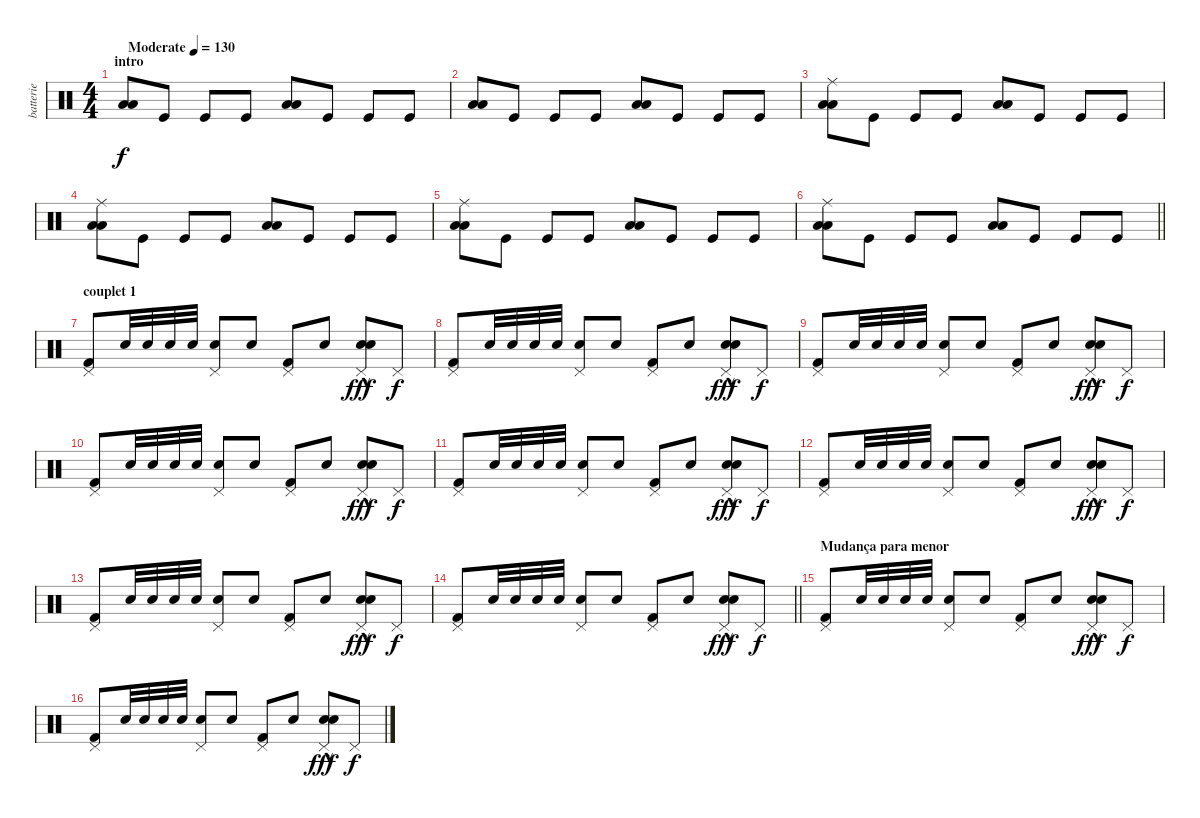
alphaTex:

\track ("batterie" "batterie") {instrument percussion}
\staff {score}
\articulation defaults
\ts (4 4)
\section ("" "intro")
\tempo (130 "Moderate")
\clef neutral
\ks c
("Low Floor Tom (hit)" "Low Floor Tom (hit)").8{bd 240 dy f} "Kick (hit)".8 "Kick (hit)".8 "Kick (hit)".8 ("Low Floor Tom (hit)" "Low Floor Tom (hit)").8 "Kick (hit)".8 "Kick (hit)".8 "Kick (hit)".8 |
("Low Floor Tom (hit)" "Low Floor Tom (hit)").8{bd 240} "Kick (hit)".8 "Kick (hit)".8 "Kick (hit)".8 ("Low Floor Tom (hit)" "Low Floor Tom (hit)").8 "Kick (hit)".8 "Kick (hit)".8 "Kick (hit)".8 |
("Ride (middle)" "Low Floor Tom (hit)" "Low Floor Tom (hit)").8{bd 240} "Kick (hit)".8 "Kick (hit)".8 "Kick (hit)".8 ("Low Floor Tom (hit)" "Low Floor Tom (hit)").8 "Kick (hit)".8 "Kick (hit)".8 "Kick (hit)".8 |
("Ride (middle)" "Low Floor Tom (hit)" "Low Floor Tom (hit)").8{bd 240} "Kick (hit)".8 "Kick (hit)".8 "Kick (hit)".8 ("Low Floor Tom (hit)" "Low Floor Tom (hit)").8 "Kick (hit)".8 "Kick (hit)".8 "Kick (hit)".8 |
("Ride (middle)" "Low Floor Tom (hit)" "Low Floor Tom (hit)").8{bd 240} "Kick (hit)".8 "Kick (hit)".8 "Kick (hit)".8 ("Low Floor Tom (hit)" "Low Floor Tom (hit)").8 "Kick (hit)".8 "Kick (hit)".8 "Kick (hit)".8 |
\barLineRight lightlight
("Ride (middle)" "Low Floor Tom (hit)" "Low Floor Tom (hit)").8{bd 240} "Kick (hit)".8 "Kick (hit)".8 "Kick (hit)".8 ("Low Floor Tom (hit)" "Low Floor Tom (hit)").8 "Kick (hit)".8 "Kick (hit)".8 "Kick (hit)".8 |
\section ("" "couplet 1")
("Pedal Hi-Hat (hit)" "Kick (hit) 2").8 "Snare (hit) 2".32 "Snare (hit) 2".32 "Snare (hit) 2".32 "Snare (hit) 2".32 ("Pedal Hi-Hat (hit)" "Snare (hit) 2").8 "Snare (hit) 2".8 ("Pedal Hi-Hat (hit)" "Kick (hit) 2").8 "Snare (hit) 2".8 ("Pedal Hi-Hat (hit)" "Snare (hit) 2"{hac} "Snare (hit) 2"{hac}).8{dy fff} "Pedal Hi-Hat (hit)".8{dy f} |
("Pedal Hi-Hat (hit)" "Kick (hit) 2").8 "Snare (hit) 2".32 "Snare (hit) 2".32 "Snare (hit) 2".32 "Snare (hit) 2".32 ("Pedal Hi-Hat (hit)" "Snare (hit) 2").8 "Snare (hit) 2".8 ("Pedal Hi-Hat (hit)" "Kick (hit) 2").8 "Snare (hit) 2".8 ("Pedal Hi-Hat (hit)" "Snare (hit) 2"{hac} "Snare (hit) 2"{hac}).8{dy fff} "Pedal Hi-Hat (hit)".8{dy f} |
("Pedal Hi-Hat (hit)" "Kick (hit) 2").8 "Snare (hit) 2".32 "Snare (hit) 2".32 "Snare (hit) 2".32 "Snare (hit) 2".32 ("Pedal Hi-Hat (hit)" "Snare (hit) 2").8 "Snare (hit) 2".8 ("Pedal Hi-Hat (hit)" "Kick (hit) 2").8 "Snare (hit) 2".8 ("Pedal Hi-Hat (hit)" "Snare (hit) 2"{hac} "Snare (hit) 2"{hac}).8{dy fff} "Pedal Hi-Hat (hit)".8{dy f} |
("Pedal Hi-Hat (hit)" "Kick (hit) 2").8 "Snare (hit) 2".32 "Snare (hit) 2".32 "Snare (hit) 2".32 "Snare (hit) 2".32 ("Pedal Hi-Hat (hit)" "Snare (hit) 2").8 "Snare (hit) 2".8 ("Pedal Hi-Hat (hit)" "Kick (hit) 2").8 "Snare (hit) 2".8 ("Pedal Hi-Hat (hit)" "Snare (hit) 2"{hac} "Snare (hit) 2"{hac}).8{dy fff} "Pedal Hi-Hat (hit)".8{dy f} |
("Pedal Hi-Hat (hit)" "Kick (hit) 2").8 "Snare (hit) 2".32 "Snare (hit) 2".32 "Snare (hit) 2".32 "Snare (hit) 2".32 ("Pedal Hi-Hat (hit)" "Snare (hit) 2").8 "Snare (hit) 2".8 ("Pedal Hi-Hat (hit)" "Kick (hit) 2").8 "Snare (hit) 2".8 ("Pedal Hi-Hat (hit)" "Snare (hit) 2"{hac} "Snare (hit) 2"{hac}).8{dy fff} "Pedal Hi-Hat (hit)".8{dy f} |
("Pedal Hi-Hat (hit)" "Kick (hit) 2").8 "Snare (hit) 2".32 "Snare (hit) 2".32 "Snare (hit) 2".32 "Snare (hit) 2".32 ("Pedal Hi-Hat (hit)" "Snare (hit) 2").8 "Snare (hit) 2".8 ("Pedal Hi-Hat (hit)" "Kick (hit) 2").8 "Snare (hit) 2".8 ("Pedal Hi-Hat (hit)" "Snare (hit) 2"{hac} "Snare (hit) 2"{hac}).8{dy fff} "Pedal Hi-Hat (hit)".8{dy f} |
("Pedal Hi-Hat (hit)" "Kick (hit) 2").8 "Snare (hit) 2".32 "Snare (hit) 2".32 "Snare (hit) 2".32 "Snare (hit) 2".32 ("Pedal Hi-Hat (hit)" "Snare (hit) 2").8 "Snare (hit) 2".8 ("Pedal Hi-Hat (hit)" "Kick (hit) 2").8 "Snare (hit) 2".8 ("Pedal Hi-Hat (hit)" "Snare (hit) 2"{hac} "Snare (hit) 2"{hac}).8{dy fff} "Pedal Hi-Hat (hit)".8{dy f} |
\barLineRight lightlight
("Pedal Hi-Hat (hit)" "Kick (hit) 2").8 "Snare (hit) 2".32 "Snare (hit) 2".32 "Snare (hit) 2".32 "Snare (hit) 2".32 ("Pedal Hi-Hat (hit)" "Snare (hit) 2").8 "Snare (hit) 2".8 ("Pedal Hi-Hat (hit)" "Kick (hit) 2").8 "Snare (hit) 2".8 ("Pedal Hi-Hat (hit)" "Snare (hit) 2"{hac} "Snare (hit) 2"{hac}).8{dy fff} "Pedal Hi-Hat (hit)".8{dy f} |
\section ("" "Mudança para menor")
("Pedal Hi-Hat (hit)" "Kick (hit) 2").8 "Snare (hit) 2".32 "Snare (hit) 2".32 "Snare (hit) 2".32 "Snare (hit) 2".32 ("Pedal Hi-Hat (hit)" "Snare (hit) 2").8 "Snare (hit) 2".8 ("Pedal Hi-Hat (hit)" "Kick (hit) 2").8 "Snare (hit) 2".8 ("Pedal Hi-Hat (hit)" "Snare (hit) 2"{hac} "Snare (hit) 2"{hac}).8{dy fff} "Pedal Hi-Hat (hit)".8{dy f} |
("Pedal Hi-Hat (hit)" "Kick (hit) 2").8 "Snare (hit) 2".32 "Snare (hit) 2".32 "Snare (hit) 2".32 "Snare (hit) 2".32 ("Pedal Hi-Hat (hit)" "Snare (hit) 2").8 "Snare (hit) 2".8 ("Pedal Hi-Hat (hit)" "Kick (hit) 2").8 "Snare (hit) 2".8 ("Pedal Hi-Hat (hit)" "Snare (hit) 2"{hac} "Snare (hit) 2"{hac}).8{dy fff} "Pedal Hi-Hat (hit)".8{dy f}
